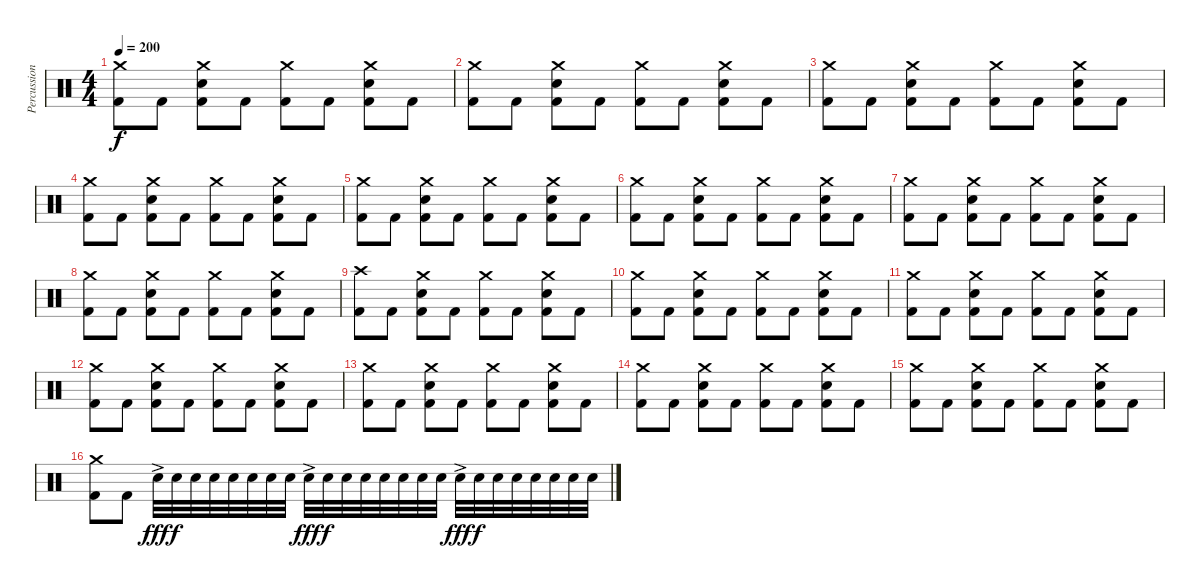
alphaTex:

\track ("Percussion" "Percussion") {instrument percussion}
\staff {score}
\articulation defaults
\ts (4 4)
\tempo 200
\clef neutral
\ks c
("Crash medium (hit)" "Kick (hit) 2").8{dy f} "Kick (hit) 2".8 ("Crash medium (hit)" "Snare (hit) 2" "Kick (hit) 2").8 "Kick (hit) 2".8 ("Crash medium (hit)" "Kick (hit) 2").8 "Kick (hit) 2".8 ("Crash medium (hit)" "Snare (hit) 2" "Kick (hit) 2").8 "Kick (hit) 2".8 |
("Crash medium (hit)" "Kick (hit) 2").8 "Kick (hit) 2".8 ("Crash medium (hit)" "Snare (hit) 2" "Kick (hit) 2").8 "Kick (hit) 2".8 ("Crash medium (hit)" "Kick (hit) 2").8 "Kick (hit) 2".8 ("Crash medium (hit)" "Snare (hit) 2" "Kick (hit) 2").8 "Kick (hit) 2".8 |
("Crash medium (hit)" "Kick (hit) 2").8 "Kick (hit) 2".8 ("Crash medium (hit)" "Snare (hit) 2" "Kick (hit) 2").8 "Kick (hit) 2".8 ("Crash medium (hit)" "Kick (hit) 2").8 "Kick (hit) 2".8 ("Crash medium (hit)" "Snare (hit) 2" "Kick (hit) 2").8 "Kick (hit) 2".8 |
("Crash medium (hit)" "Kick (hit) 2").8 "Kick (hit) 2".8 ("Crash medium (hit)" "Snare (hit) 2" "Kick (hit) 2").8 "Kick (hit) 2".8 ("Crash medium (hit)" "Kick (hit) 2").8 "Kick (hit) 2".8 ("Crash medium (hit)" "Snare (hit) 2" "Kick (hit) 2").8 "Kick (hit) 2".8 |
("Crash medium (hit)" "Kick (hit) 2").8 "Kick (hit) 2".8 ("Crash medium (hit)" "Snare (hit) 2" "Kick (hit) 2").8 "Kick (hit) 2".8 ("Crash medium (hit)" "Kick (hit) 2").8 "Kick (hit) 2".8 ("Crash medium (hit)" "Snare (hit) 2" "Kick (hit) 2").8 "Kick (hit) 2".8 |
("Crash medium (hit)" "Kick (hit) 2").8 "Kick (hit) 2".8 ("Crash medium (hit)" "Snare (hit) 2" "Kick (hit) 2").8 "Kick (hit) 2".8 ("Crash medium (hit)" "Kick (hit) 2").8 "Kick (hit) 2".8 ("Crash medium (hit)" "Snare (hit) 2" "Kick (hit) 2").8 "Kick (hit) 2".8 |
("Crash medium (hit)" "Kick (hit) 2").8 "Kick (hit) 2".8 ("Crash medium (hit)" "Snare (hit) 2" "Kick (hit) 2").8 "Kick (hit) 2".8 ("Crash medium (hit)" "Kick (hit) 2").8 "Kick (hit) 2".8 ("Crash medium (hit)" "Snare (hit) 2" "Kick (hit) 2").8 "Kick (hit) 2".8 |
("Crash medium (hit)" "Kick (hit) 2").8 "Kick (hit) 2".8 ("Crash medium (hit)" "Snare (hit) 2" "Kick (hit) 2").8 "Kick (hit) 2".8 ("Crash medium (hit)" "Kick (hit) 2").8 "Kick (hit) 2".8 ("Crash medium (hit)" "Snare (hit) 2" "Kick (hit) 2").8 "Kick (hit) 2".8 |
("Crash high (hit)" "Kick (hit) 2").8 "Kick (hit) 2".8 ("Crash medium (hit)" "Snare (hit) 2" "Kick (hit) 2").8 "Kick (hit) 2".8 ("Crash medium (hit)" "Kick (hit) 2").8 "Kick (hit) 2".8 ("Crash medium (hit)" "Snare (hit) 2" "Kick (hit) 2").8 "Kick (hit) 2".8 |
("Crash medium (hit)" "Kick (hit) 2").8 "Kick (hit) 2".8 ("Crash medium (hit)" "Snare (hit) 2" "Kick (hit) 2").8 "Kick (hit) 2".8 ("Crash medium (hit)" "Kick (hit) 2").8 "Kick (hit) 2".8 ("Crash medium (hit)" "Snare (hit) 2" "Kick (hit) 2").8 "Kick (hit) 2".8 |
("Crash medium (hit)" "Kick (hit) 2").8 "Kick (hit) 2".8 ("Crash medium (hit)" "Snare (hit) 2" "Kick (hit) 2").8 "Kick (hit) 2".8 ("Crash medium (hit)" "Kick (hit) 2").8 "Kick (hit) 2".8 ("Crash medium (hit)" "Snare (hit) 2" "Kick (hit) 2").8 "Kick (hit) 2".8 |
("Crash medium (hit)" "Kick (hit) 2").8 "Kick (hit) 2".8 ("Crash medium (hit)" "Snare (hit) 2" "Kick (hit) 2").8 "Kick (hit) 2".8 ("Crash medium (hit)" "Kick (hit) 2").8 "Kick (hit) 2".8 ("Crash medium (hit)" "Snare (hit) 2" "Kick (hit) 2").8 "Kick (hit) 2".8 |
("Crash medium (hit)" "Kick (hit) 2").8 "Kick (hit) 2".8 ("Crash medium (hit)" "Snare (hit) 2" "Kick (hit) 2").8 "Kick (hit) 2".8 ("Crash medium (hit)" "Kick (hit) 2").8 "Kick (hit) 2".8 ("Crash medium (hit)" "Snare (hit) 2" "Kick (hit) 2").8 "Kick (hit) 2".8 |
("Crash medium (hit)" "Kick (hit) 2").8 "Kick (hit) 2".8 ("Crash medium (hit)" "Snare (hit) 2" "Kick (hit) 2").8 "Kick (hit) 2".8 ("Crash medium (hit)" "Kick (hit) 2").8 "Kick (hit) 2".8 ("Crash medium (hit)" "Snare (hit) 2" "Kick (hit) 2").8 "Kick (hit) 2".8 |
("Crash medium (hit)" "Kick (hit) 2").8 "Kick (hit) 2".8 ("Crash medium (hit)" "Snare (hit) 2" "Kick (hit) 2").8 "Kick (hit) 2".8 ("Crash medium (hit)" "Kick (hit) 2").8 "Kick (hit) 2".8 ("Crash medium (hit)" "Snare (hit) 2" "Kick (hit) 2").8 "Kick (hit) 2".8 |
("Crash medium (hit)" "Kick (hit) 2").8 "Kick (hit) 2".8 "Snare (hit) 2"{ac}.32{dy fff} "Snare (hit) 2".32{dy f} "Snare (hit) 2".32 "Snare (hit) 2".32 "Snare (hit) 2".32 "Snare (hit) 2".32 "Snare (hit) 2".32 "Snare (hit) 2".32 "Snare (hit) 2"{ac}.32{dy fff} "Snare (hit) 2".32{dy f} "Snare (hit) 2".32 "Snare (hit) 2".32 "Snare (hit) 2".32 "Snare (hit) 2".32 "Snare (hit) 2".32 "Snare (hit) 2".32 "Snare (hit) 2"{ac}.32{dy fff} "Snare (hit) 2".32{dy f} "Snare (hit) 2".32 "Snare (hit) 2".32 "Snare (hit) 2".32 "Snare (hit) 2".32 "Snare (hit) 2".32 "Snare (hit) 2".32
